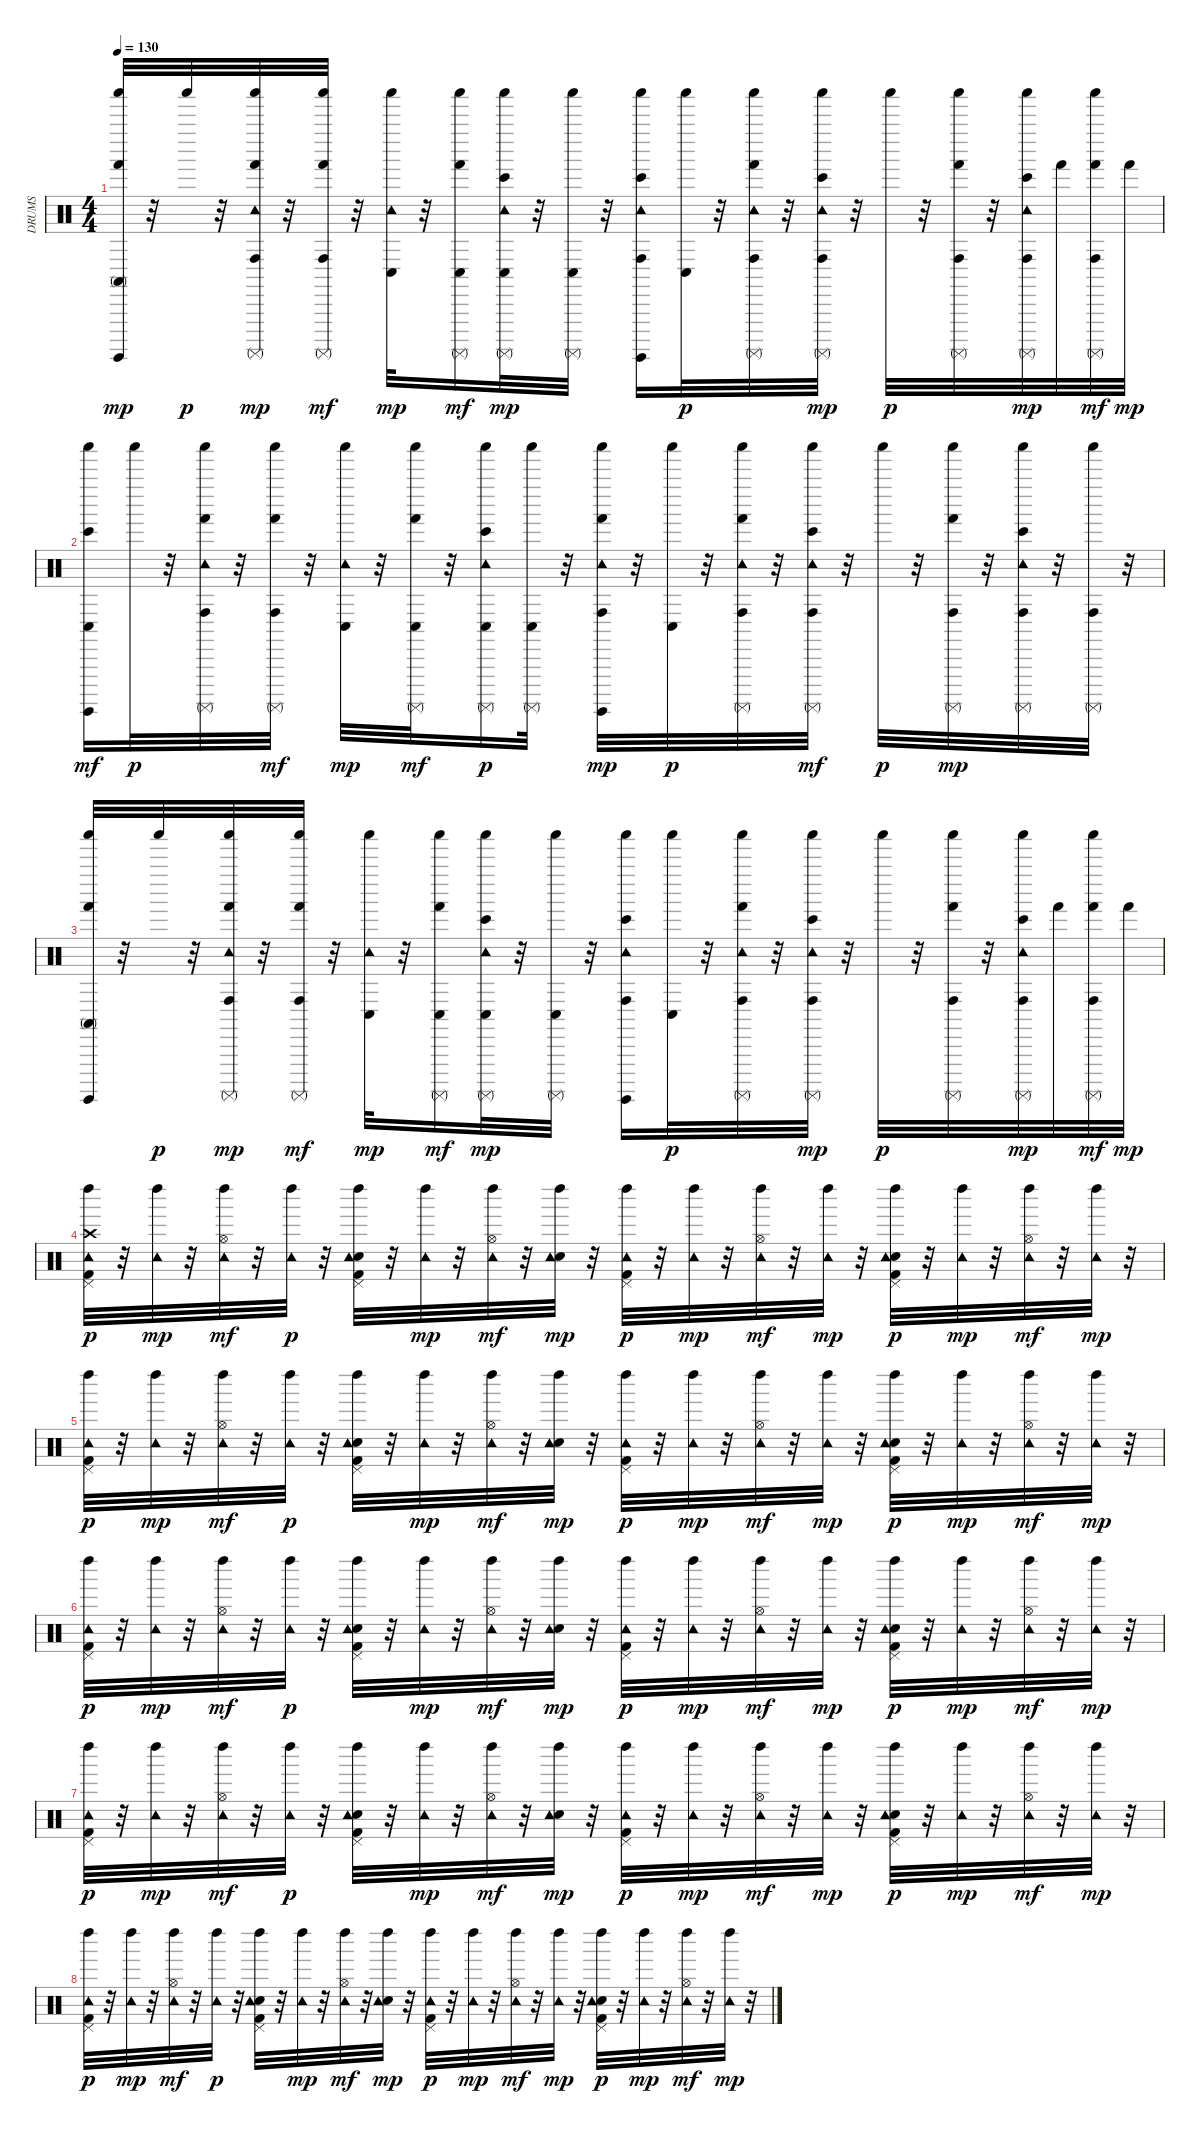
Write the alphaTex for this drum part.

\track ("DRUMS" "DRUMS") {instrument percussion}
\staff {score}
\articulation defaults
\ts (4 4)
\tempo 130
\clef neutral
\ks c
("Shaker (hit)" "Conga high (mute)" "Hand (hit)" "Surdo (hit)").32{dy mp} r.32 "Shaker (hit)".32{dy p} r.32 ("Tambourine (hit)" "Shaker (hit)" "Hand (hit)" "Surdo (mute)" "Conga high (hit)").32{dy mp} r.32 ("Shaker (hit)" "Hand (hit)" "Surdo (mute)" "Conga high (hit)").32{dy mf} r.32 ("Tambourine (hit)" "Shaker (hit)" "Conga low (hit)").32{dy mp} r.32 ("Shaker (hit)" "Hand (hit)" "Surdo (mute)" "Conga low (hit)").16{dy mf} ("Tambourine (hit)" "Shaker (hit)" "Surdo (mute)" "Bongo High (hit)" "Conga low (hit)").32{dy mp} r.32 ("Shaker (hit)" "Conga low (hit)" "Surdo (mute)").32 r.32 ("Tambourine (hit)" "Shaker (hit)" "Conga high (hit)" "Surdo (hit)" "Bongo High (hit)").16 ("Shaker (hit)" "Conga low (hit)").32{dy p} r.32 ("Conga high (hit)" "Tambourine (hit)" "Shaker (hit)" "Hand (hit)" "Surdo (mute)").32 r.32 ("Conga high (hit)" "Tambourine (hit)" "Shaker (hit)" "Surdo (mute)" "Bongo High (hit)").32{dy mp} r.32 "Shaker (hit)".32{dy p} r.32 ("Shaker (hit)" "Surdo (mute)" "Hand (hit)" "Conga high (hit)").32 r.32 ("Tambourine (hit)" "Shaker (hit)" "Surdo (mute)" "Bongo High (hit)" "Conga high (hit)").32{dy mp} "Hand (hit)".32 ("Shaker (hit)" "Hand (hit)" "Surdo (mute)" "Conga high (hit)").32{dy mf} "Hand (hit)".32{dy mp} |
("Shaker (hit)" "Conga low (hit)" "Surdo (hit)" "Bongo High (hit)").16{dy mf} "Shaker (hit)".32{dy p} r.32 ("Tambourine (hit)" "Shaker (hit)" "Conga high (hit)" "Hand (hit)" "Surdo (mute)").32 r.32 ("Conga high (hit)" "Hand (hit)" "Shaker (hit)" "Surdo (mute)").32{dy mf} r.32 ("Tambourine (hit)" "Shaker (hit)" "Conga low (hit)").32{dy mp} r.32 ("Shaker (hit)" "Hand (hit)" "Surdo (mute)" "Conga low (hit)").32{dy mf} r.32 ("Tambourine (hit)" "Shaker (hit)" "Surdo (mute)" "Conga low (hit)" "Bongo High (hit)").16{dy p} ("Shaker (hit)" "Surdo (mute)" "Conga low (hit)").32 r.32 ("Tambourine (hit)" "Shaker (hit)" "Surdo (hit)" "Conga high (hit)" "Hand (hit)").32{dy mp} r.32 ("Shaker (hit)" "Conga low (hit)").32{dy p} r.32 ("Tambourine (hit)" "Shaker (hit)" "Conga high (hit)" "Hand (hit)" "Surdo (mute)").32 r.32 ("Conga high (hit)" "Bongo High (hit)" "Tambourine (hit)" "Shaker (hit)" "Surdo (mute)").32{dy mf} r.32 "Shaker (hit)".32{dy p} r.32 ("Hand (hit)" "Shaker (hit)" "Surdo (mute)" "Conga high (hit)").32{dy mp} r.32 ("Tambourine (hit)" "Shaker (hit)" "Surdo (mute)" "Conga high (hit)" "Bongo High (hit)").32 r.32 ("Shaker (hit)" "Conga high (hit)" "Surdo (mute)").32 r.32 |
("Shaker (hit)" "Conga high (mute)" "Hand (hit)" "Surdo (hit)").32 r.32 "Shaker (hit)".32{dy p} r.32 ("Tambourine (hit)" "Shaker (hit)" "Hand (hit)" "Surdo (mute)" "Conga high (hit)").32{dy mp} r.32 ("Shaker (hit)" "Hand (hit)" "Surdo (mute)" "Conga high (hit)").32{dy mf} r.32 ("Tambourine (hit)" "Shaker (hit)" "Conga low (hit)").32{dy mp} r.32 ("Shaker (hit)" "Hand (hit)" "Surdo (mute)" "Conga low (hit)").16{dy mf} ("Tambourine (hit)" "Shaker (hit)" "Surdo (mute)" "Bongo High (hit)" "Conga low (hit)").32{dy mp} r.32 ("Shaker (hit)" "Conga low (hit)" "Surdo (mute)").32 r.32 ("Tambourine (hit)" "Shaker (hit)" "Conga high (hit)" "Surdo (hit)" "Bongo High (hit)").16 ("Shaker (hit)" "Conga low (hit)").32{dy p} r.32 ("Conga high (hit)" "Tambourine (hit)" "Shaker (hit)" "Hand (hit)" "Surdo (mute)").32 r.32 ("Conga high (hit)" "Tambourine (hit)" "Shaker (hit)" "Surdo (mute)" "Bongo High (hit)").32{dy mp} r.32 "Shaker (hit)".32{dy p} r.32 ("Shaker (hit)" "Surdo (mute)" "Hand (hit)" "Conga high (hit)").32 r.32 ("Tambourine (hit)" "Shaker (hit)" "Surdo (mute)" "Bongo High (hit)" "Conga high (hit)").32{dy mp} "Hand (hit)".32 ("Shaker (hit)" "Hand (hit)" "Surdo (mute)" "Conga high (hit)").32{dy mf} "Hand (hit)".32{dy mp} |
("Kick (hit) 2" "Pedal Hi-Hat (hit)" "Left Maraca (hit)" "Crash high (hit)" "Tambourine (hit)").32{dy p} r.32 ("Left Maraca (hit)" "Tambourine (hit)").32{dy mp} r.32 ("Hi-Hat (open)" "Left Maraca (hit)" "Tambourine (hit)").32{dy mf} r.32 ("Left Maraca (hit)" "Tambourine (hit)").32{dy p} r.32 ("Kick (hit) 2" "Electric Snare (hit)" "Pedal Hi-Hat (hit)" "Left Maraca (hit)" "Tambourine (hit)").32 r.32 ("Left Maraca (hit)" "Tambourine (hit)").32{dy mp} r.32 ("Hi-Hat (open)" "Left Maraca (hit)" "Tambourine (hit)").32{dy mf} r.32 ("Electric Snare (hit)" "Left Maraca (hit)" "Tambourine (hit)").32{dy mp} r.32 ("Kick (hit) 2" "Pedal Hi-Hat (hit)" "Left Maraca (hit)" "Tambourine (hit)").32{dy p} r.32 ("Left Maraca (hit)" "Tambourine (hit)").32{dy mp} r.32 ("Hi-Hat (open)" "Left Maraca (hit)" "Tambourine (hit)").32{dy mf} r.32 ("Left Maraca (hit)" "Tambourine (hit)").32{dy mp} r.32 ("Kick (hit) 2" "Electric Snare (hit)" "Pedal Hi-Hat (hit)" "Left Maraca (hit)" "Tambourine (hit)").32{dy p} r.32 ("Left Maraca (hit)" "Tambourine (hit)").32{dy mp} r.32 ("Hi-Hat (open)" "Left Maraca (hit)" "Tambourine (hit)").32{dy mf} r.32 ("Left Maraca (hit)" "Tambourine (hit)").32{dy mp} r.32 |
("Kick (hit) 2" "Pedal Hi-Hat (hit)" "Left Maraca (hit)" "Tambourine (hit)").32{dy p} r.32 ("Left Maraca (hit)" "Tambourine (hit)").32{dy mp} r.32 ("Hi-Hat (open)" "Left Maraca (hit)" "Tambourine (hit)").32{dy mf} r.32 ("Left Maraca (hit)" "Tambourine (hit)").32{dy p} r.32 ("Kick (hit) 2" "Electric Snare (hit)" "Pedal Hi-Hat (hit)" "Left Maraca (hit)" "Tambourine (hit)").32 r.32 ("Left Maraca (hit)" "Tambourine (hit)").32{dy mp} r.32 ("Hi-Hat (open)" "Left Maraca (hit)" "Tambourine (hit)").32{dy mf} r.32 ("Electric Snare (hit)" "Left Maraca (hit)" "Tambourine (hit)").32{dy mp} r.32 ("Kick (hit) 2" "Pedal Hi-Hat (hit)" "Left Maraca (hit)" "Tambourine (hit)").32{dy p} r.32 ("Left Maraca (hit)" "Tambourine (hit)").32{dy mp} r.32 ("Hi-Hat (open)" "Left Maraca (hit)" "Tambourine (hit)").32{dy mf} r.32 ("Left Maraca (hit)" "Tambourine (hit)").32{dy mp} r.32 ("Kick (hit) 2" "Electric Snare (hit)" "Pedal Hi-Hat (hit)" "Left Maraca (hit)" "Tambourine (hit)").32{dy p} r.32 ("Left Maraca (hit)" "Tambourine (hit)").32{dy mp} r.32 ("Hi-Hat (open)" "Left Maraca (hit)" "Tambourine (hit)").32{dy mf} r.32 ("Left Maraca (hit)" "Tambourine (hit)").32{dy mp} r.32 |
("Kick (hit) 2" "Pedal Hi-Hat (hit)" "Left Maraca (hit)" "Tambourine (hit)").32{dy p} r.32 ("Left Maraca (hit)" "Tambourine (hit)").32{dy mp} r.32 ("Hi-Hat (open)" "Left Maraca (hit)" "Tambourine (hit)").32{dy mf} r.32 ("Left Maraca (hit)" "Tambourine (hit)").32{dy p} r.32 ("Kick (hit) 2" "Electric Snare (hit)" "Pedal Hi-Hat (hit)" "Left Maraca (hit)" "Tambourine (hit)").32 r.32 ("Left Maraca (hit)" "Tambourine (hit)").32{dy mp} r.32 ("Hi-Hat (open)" "Left Maraca (hit)" "Tambourine (hit)").32{dy mf} r.32 ("Electric Snare (hit)" "Left Maraca (hit)" "Tambourine (hit)").32{dy mp} r.32 ("Kick (hit) 2" "Pedal Hi-Hat (hit)" "Left Maraca (hit)" "Tambourine (hit)").32{dy p} r.32 ("Left Maraca (hit)" "Tambourine (hit)").32{dy mp} r.32 ("Hi-Hat (open)" "Left Maraca (hit)" "Tambourine (hit)").32{dy mf} r.32 ("Left Maraca (hit)" "Tambourine (hit)").32{dy mp} r.32 ("Kick (hit) 2" "Electric Snare (hit)" "Pedal Hi-Hat (hit)" "Left Maraca (hit)" "Tambourine (hit)").32{dy p} r.32 ("Left Maraca (hit)" "Tambourine (hit)").32{dy mp} r.32 ("Hi-Hat (open)" "Left Maraca (hit)" "Tambourine (hit)").32{dy mf} r.32 ("Left Maraca (hit)" "Tambourine (hit)").32{dy mp} r.32 |
("Kick (hit) 2" "Pedal Hi-Hat (hit)" "Left Maraca (hit)" "Tambourine (hit)").32{dy p} r.32 ("Left Maraca (hit)" "Tambourine (hit)").32{dy mp} r.32 ("Hi-Hat (open)" "Left Maraca (hit)" "Tambourine (hit)").32{dy mf} r.32 ("Left Maraca (hit)" "Tambourine (hit)").32{dy p} r.32 ("Kick (hit) 2" "Electric Snare (hit)" "Pedal Hi-Hat (hit)" "Left Maraca (hit)" "Tambourine (hit)").32 r.32 ("Left Maraca (hit)" "Tambourine (hit)").32{dy mp} r.32 ("Hi-Hat (open)" "Left Maraca (hit)" "Tambourine (hit)").32{dy mf} r.32 ("Electric Snare (hit)" "Left Maraca (hit)" "Tambourine (hit)").32{dy mp} r.32 ("Kick (hit) 2" "Pedal Hi-Hat (hit)" "Left Maraca (hit)" "Tambourine (hit)").32{dy p} r.32 ("Left Maraca (hit)" "Tambourine (hit)").32{dy mp} r.32 ("Hi-Hat (open)" "Left Maraca (hit)" "Tambourine (hit)").32{dy mf} r.32 ("Left Maraca (hit)" "Tambourine (hit)").32{dy mp} r.32 ("Kick (hit) 2" "Electric Snare (hit)" "Pedal Hi-Hat (hit)" "Left Maraca (hit)" "Tambourine (hit)").32{dy p} r.32 ("Left Maraca (hit)" "Tambourine (hit)").32{dy mp} r.32 ("Hi-Hat (open)" "Left Maraca (hit)" "Tambourine (hit)").32{dy mf} r.32 ("Left Maraca (hit)" "Tambourine (hit)").32{dy mp} r.32 |
("Kick (hit) 2" "Pedal Hi-Hat (hit)" "Left Maraca (hit)" "Tambourine (hit)").32{dy p} r.32 ("Left Maraca (hit)" "Tambourine (hit)").32{dy mp} r.32 ("Hi-Hat (open)" "Left Maraca (hit)" "Tambourine (hit)").32{dy mf} r.32 ("Left Maraca (hit)" "Tambourine (hit)").32{dy p} r.32 ("Kick (hit) 2" "Electric Snare (hit)" "Pedal Hi-Hat (hit)" "Left Maraca (hit)" "Tambourine (hit)").32 r.32 ("Left Maraca (hit)" "Tambourine (hit)").32{dy mp} r.32 ("Hi-Hat (open)" "Left Maraca (hit)" "Tambourine (hit)").32{dy mf} r.32 ("Electric Snare (hit)" "Left Maraca (hit)" "Tambourine (hit)").32{dy mp} r.32 ("Kick (hit) 2" "Pedal Hi-Hat (hit)" "Left Maraca (hit)" "Tambourine (hit)").32{dy p} r.32 ("Left Maraca (hit)" "Tambourine (hit)").32{dy mp} r.32 ("Hi-Hat (open)" "Left Maraca (hit)" "Tambourine (hit)").32{dy mf} r.32 ("Left Maraca (hit)" "Tambourine (hit)").32{dy mp} r.32 ("Kick (hit) 2" "Electric Snare (hit)" "Pedal Hi-Hat (hit)" "Left Maraca (hit)" "Tambourine (hit)").32{dy p} r.32 ("Left Maraca (hit)" "Tambourine (hit)").32{dy mp} r.32 ("Hi-Hat (open)" "Left Maraca (hit)" "Tambourine (hit)").32{dy mf} r.32 ("Left Maraca (hit)" "Tambourine (hit)").32{dy mp} r.32
